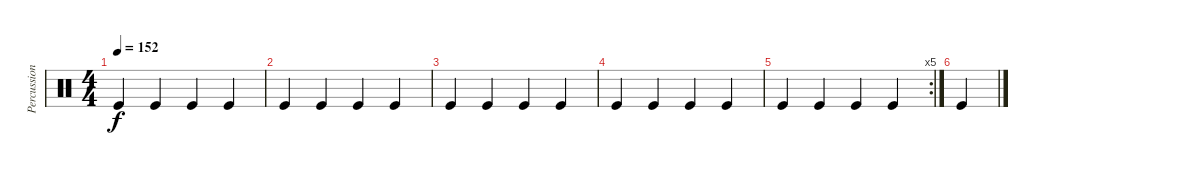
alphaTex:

\track ("Percussions" "Percussion") {instrument percussion}
\staff {score}
\articulation defaults
\ts (4 4)
\tempo 152
\clef neutral
\ks c "Kick (hit)".4{dy f} "Kick (hit)".4 "Kick (hit)".4 "Kick (hit)".4
|
"Kick (hit)".4 "Kick (hit)".4 "Kick (hit)".4 "Kick (hit)".4 |
"Kick (hit)".4 "Kick (hit)".4 "Kick (hit)".4 "Kick (hit)".4 |
"Kick (hit)".4 "Kick (hit)".4 "Kick (hit)".4 "Kick (hit)".4 |
\rc 5 "Kick (hit)".4 "Kick (hit)".4 "Kick (hit)".4 "Kick (hit)".4
|
"Kick (hit)".4
